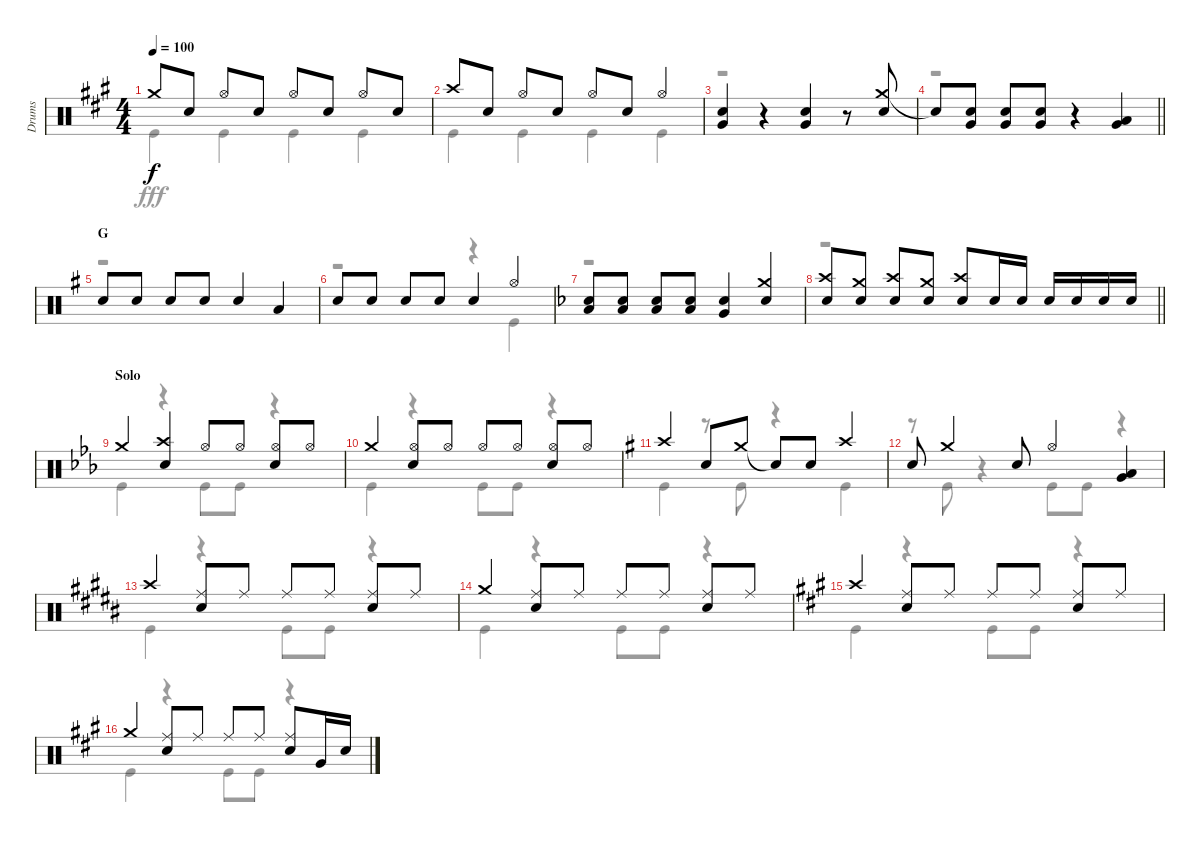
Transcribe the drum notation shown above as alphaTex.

\track ("Drums" "Drums") {instrument percussion}
\staff {score}
\articulation defaults
\voice
\ts (4 4)
\tempo 100
\clef neutral
\ks a "Crash medium (hit)".8{dy f} "Snare (hit) 2".8 "Hi-Hat (open)".8 "Snare (hit) 2".8 "Hi-Hat (open)".8 "Snare (hit) 2".8 "Hi-Hat (open)".8 "Snare (hit) 2".8
|
"Crash high (hit)".8 "Snare (hit) 2".8 "Hi-Hat (open)".8 "Snare (hit) 2".8 "Hi-Hat (open)".8 "Snare (hit) 2".8 "Hi-Hat (open)".4 |
("Snare (hit) 2" "Very Low Tom (hit)").4 r.4 ("Snare (hit) 2" "Very Low Tom (hit)").4 r.8 ("Crash medium (hit)" "Snare (hit) 2").8 |
\barLineRight lightlight "Snare (hit)"{t}.8
("Snare (hit) 2" "Very Low Tom (hit)").8 ("Snare (hit) 2" "Very Low Tom (hit)").8 ("Snare (hit) 2" "Very Low Tom (hit)").8 r.4 ("Low Tom (hit)" "Very Low Tom (hit)").4 |
\section ("" "G")
\ks g "Snare (hit) 2".8 "Snare (hit) 2".8 "Snare (hit) 2".8 "Snare (hit) 2".8 "Snare (hit) 2".4 "Low Tom (hit)".4
|
"Snare (hit) 2".8 "Snare (hit) 2".8 "Snare (hit) 2".8 "Snare (hit) 2".8 "Snare (hit) 2".4 "Hi-Hat (open)".4 |
\ks f
("Snare (hit) 2" "Low Tom (hit)").8 ("Snare (hit) 2" "Low Tom (hit)").8 ("Snare (hit) 2" "Low Tom (hit)").8 ("Snare (hit) 2" "Low Tom (hit)").8 ("Snare (hit) 2" "Very Low Tom (hit)").4 ("Crash medium (hit)" "Snare (hit) 2").4 |
\barLineRight lightlight
("Crash high (hit)" "Snare (hit) 2").8 ("Crash medium (hit)" "Snare (hit) 2").8 ("Crash high (hit)" "Snare (hit) 2").8 ("Crash medium (hit)" "Snare (hit) 2").8 ("Crash high (hit)" "Snare (hit) 2").8 "Snare (hit) 2".16 "Snare (hit) 2".16 "Snare (hit) 2".16 "Snare (hit) 2".16 "Snare (hit) 2".16 "Snare (hit) 2".16 |
\section ("" "Solo")
\ks eb "Crash medium (hit)".4
("Crash high (hit)" "Snare (hit) 2").4 "Hi-Hat (open)".8 "Hi-Hat (open)".8 ("Hi-Hat (open)" "Snare (hit) 2").8 "Hi-Hat (open)".8 |
"Crash medium (hit)".4 ("Hi-Hat (open)" "Snare (hit) 2").8 "Hi-Hat (open)".8 "Hi-Hat (open)".8 "Hi-Hat (open)".8 ("Hi-Hat (open)" "Snare (hit) 2").8 "Hi-Hat (open)".8 |
\ks g "Crash high (hit)".4 "Snare (hit) 2".8 "Crash medium (hit)".8 "Snare (hit)"{t}.8 "Snare (hit) 2".8 "Crash high (hit)".4
|
"Snare (hit) 2".8 "Crash medium (hit)".4 "Snare (hit) 2".8 "Hi-Hat (open)".4 ("Low Tom (hit)" "Very Low Tom (hit)").4 |
\ks b "Crash high (hit)".4
("Ride (middle)" "Snare (hit) 2").8 "Ride (middle)".8 "Ride (middle)".8 "Ride (middle)".8 ("Ride (middle)" "Snare (hit) 2").8 "Ride (middle)".8 |
"Crash medium (hit)".4 ("Ride (middle)" "Snare (hit) 2").8 "Ride (middle)".8 "Ride (middle)".8 "Ride (middle)".8 ("Ride (middle)" "Snare (hit) 2").8 "Ride (middle)".8 |
\ks a "Crash high (hit)".4
("Ride (middle)" "Snare (hit) 2").8 "Ride (middle)".8 "Ride (middle)".8 "Ride (middle)".8 ("Ride (middle)" "Snare (hit) 2").8 "Ride (middle)".8 |
"Crash medium (hit)".4 ("Ride (middle)" "Snare (hit) 2").8 "Ride (middle)".8 "Ride (middle)".8 "Ride (middle)".8 ("Ride (middle)" "Snare (hit) 2").8 "Very Low Tom (hit)".16 "Snare (hit) 2".16
\voice
\clef neutral
\ottava regular
\simile none
\ks a "Kick (hit)".4{dy fff} "Kick (hit)".4 "Kick (hit)".4 "Kick (hit)".4
|
"Kick (hit)".4 "Kick (hit)".4 "Kick (hit)".4 "Kick (hit)".4 |
r.1 |
\barLineRight lightlight
r.1 |
\ks g
r.1 |
r.2 r.4 "Kick (hit)".4 |
\ks f
r.1 |
\barLineRight lightlight
r.1 |
\ks eb "Kick (hit)".4
r.4 "Kick (hit)".8 "Kick (hit)".8 r.4 |
"Kick (hit)".4 r.4 "Kick (hit)".8 "Kick (hit)".8 r.4 |
\ks g "Kick (hit)".4
r.8 "Kick (hit)".8 r.4 "Kick (hit)".4 |
r.8 "Kick (hit)".8 r.4 "Kick (hit)".8 "Kick (hit)".8 r.4 |
\ks b "Kick (hit)".4
r.4 "Kick (hit)".8 "Kick (hit)".8 r.4 |
"Kick (hit)".4 r.4 "Kick (hit)".8 "Kick (hit)".8 r.4 |
\ks a "Kick (hit)".4
r.4 "Kick (hit)".8 "Kick (hit)".8 r.4 |
"Kick (hit)".4 r.4 "Kick (hit)".8 "Kick (hit)".8 r.4
